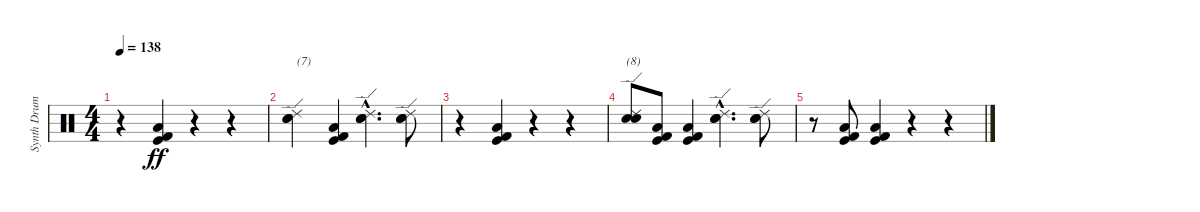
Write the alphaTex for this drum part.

\track ("Synth Drums" "Synth Drum") {instrument percussion}
\staff {score}
\articulation defaults
\ts (4 4)
\tempo 138
\clef neutral
\ks c
r.4{dy ff} ("Low Floor Tom (hit)" "Kick (hit) 2" "Kick (hit)").4 r.4 r.4 |
("Ride (edge) 2" "Electric Snare (hit)" "Snare (hit) 2").4{txt "(7)"} ("Low Floor Tom (hit)" "Kick (hit) 2" "Kick (hit)").4 ("Ride (edge) 2"{hac} "Electric Snare (hit)"{hac} "Snare (hit) 2"{hac}).4{d} ("Ride (edge) 2" "Electric Snare (hit)" "Snare (hit) 2").8 |
r.4 ("Low Floor Tom (hit)" "Kick (hit) 2" "Kick (hit)").4 r.4 r.4 |
("Ride (edge) 2" "Electric Snare (hit)" "Snare (hit) 2").8{txt "(8)"} ("Low Floor Tom (hit)" "Kick (hit) 2" "Kick (hit)").8 ("Low Floor Tom (hit)" "Kick (hit) 2" "Kick (hit)").4 ("Ride (edge) 2"{hac} "Electric Snare (hit)"{hac} "Snare (hit) 2"{hac}).4{d} ("Ride (edge) 2" "Electric Snare (hit)" "Snare (hit) 2").8 |
r.8 ("Low Floor Tom (hit)" "Kick (hit) 2" "Kick (hit)").8 ("Low Floor Tom (hit)" "Kick (hit) 2" "Kick (hit)").4 r.4 r.4
